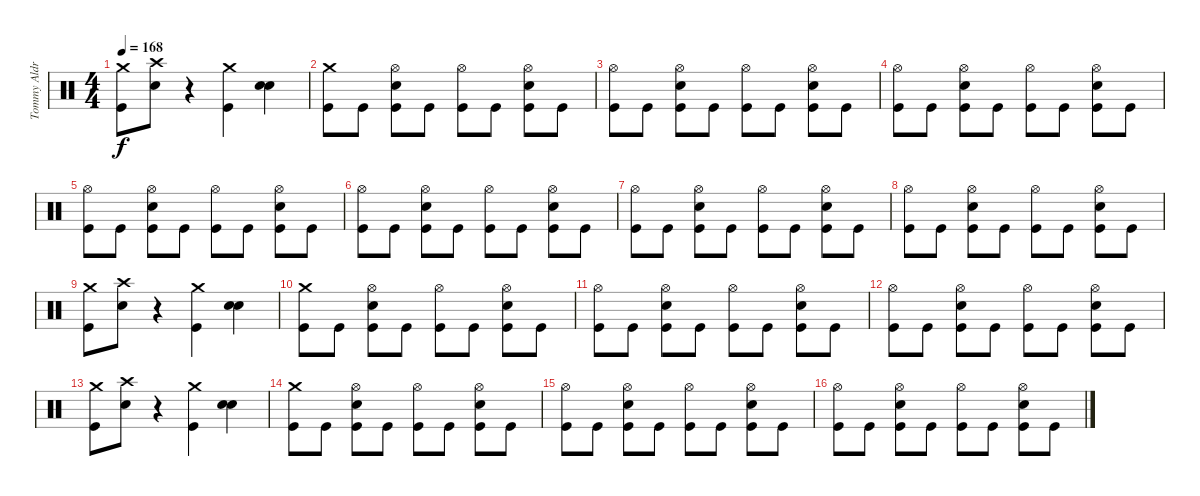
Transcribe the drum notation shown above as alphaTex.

\track ("Tommy Aldrige" "Tommy Aldr") {instrument percussion}
\staff {score}
\articulation defaults
\ts (4 4)
\tempo 168
\clef neutral
\ks c
("Crash medium (hit)" "Kick (hit)").8{dy f} ("Crash high (hit)" "Snare (hit) 2").8 r.4 ("Crash medium (hit)" "Kick (hit)").4 ("Snare (hit) 2" "Snare (hit) 2").4{bd 240} |
("Crash medium (hit)" "Kick (hit)").8 "Kick (hit)".8 ("Hi-Hat (open)" "Snare (hit) 2" "Kick (hit)").8 "Kick (hit)".8 ("Hi-Hat (open)" "Kick (hit)").8 "Kick (hit)".8 ("Hi-Hat (open)" "Snare (hit) 2" "Kick (hit)").8 "Kick (hit)".8 |
("Hi-Hat (open)" "Kick (hit)").8 "Kick (hit)".8 ("Hi-Hat (open)" "Snare (hit) 2" "Kick (hit)").8 "Kick (hit)".8 ("Hi-Hat (open)" "Kick (hit)").8 "Kick (hit)".8 ("Hi-Hat (open)" "Snare (hit) 2" "Kick (hit)").8 "Kick (hit)".8 |
("Hi-Hat (open)" "Kick (hit)").8 "Kick (hit)".8 ("Hi-Hat (open)" "Snare (hit) 2" "Kick (hit)").8 "Kick (hit)".8 ("Hi-Hat (open)" "Kick (hit)").8 "Kick (hit)".8 ("Hi-Hat (open)" "Snare (hit) 2" "Kick (hit)").8 "Kick (hit)".8 |
("Hi-Hat (open)" "Kick (hit)").8 "Kick (hit)".8 ("Hi-Hat (open)" "Snare (hit) 2" "Kick (hit)").8 "Kick (hit)".8 ("Hi-Hat (open)" "Kick (hit)").8 "Kick (hit)".8 ("Hi-Hat (open)" "Snare (hit) 2" "Kick (hit)").8 "Kick (hit)".8 |
("Hi-Hat (open)" "Kick (hit)").8 "Kick (hit)".8 ("Hi-Hat (open)" "Snare (hit) 2" "Kick (hit)").8 "Kick (hit)".8 ("Hi-Hat (open)" "Kick (hit)").8 "Kick (hit)".8 ("Hi-Hat (open)" "Snare (hit) 2" "Kick (hit)").8 "Kick (hit)".8 |
("Hi-Hat (open)" "Kick (hit)").8 "Kick (hit)".8 ("Hi-Hat (open)" "Snare (hit) 2" "Kick (hit)").8 "Kick (hit)".8 ("Hi-Hat (open)" "Kick (hit)").8 "Kick (hit)".8 ("Hi-Hat (open)" "Snare (hit) 2" "Kick (hit)").8 "Kick (hit)".8 |
("Hi-Hat (open)" "Kick (hit)").8 "Kick (hit)".8 ("Hi-Hat (open)" "Snare (hit) 2" "Kick (hit)").8 "Kick (hit)".8 ("Hi-Hat (open)" "Kick (hit)").8 "Kick (hit)".8 ("Hi-Hat (open)" "Snare (hit) 2" "Kick (hit)").8 "Kick (hit)".8 |
("Crash medium (hit)" "Kick (hit)").8 ("Crash high (hit)" "Snare (hit) 2").8 r.4 ("Crash medium (hit)" "Kick (hit)").4 ("Snare (hit) 2" "Snare (hit) 2").4{bd 240} |
("Crash medium (hit)" "Kick (hit)").8 "Kick (hit)".8 ("Hi-Hat (open)" "Snare (hit) 2" "Kick (hit)").8 "Kick (hit)".8 ("Hi-Hat (open)" "Kick (hit)").8 "Kick (hit)".8 ("Hi-Hat (open)" "Snare (hit) 2" "Kick (hit)").8 "Kick (hit)".8 |
("Hi-Hat (open)" "Kick (hit)").8 "Kick (hit)".8 ("Hi-Hat (open)" "Snare (hit) 2" "Kick (hit)").8 "Kick (hit)".8 ("Hi-Hat (open)" "Kick (hit)").8 "Kick (hit)".8 ("Hi-Hat (open)" "Snare (hit) 2" "Kick (hit)").8 "Kick (hit)".8 |
("Hi-Hat (open)" "Kick (hit)").8 "Kick (hit)".8 ("Hi-Hat (open)" "Snare (hit) 2" "Kick (hit)").8 "Kick (hit)".8 ("Hi-Hat (open)" "Kick (hit)").8 "Kick (hit)".8 ("Hi-Hat (open)" "Snare (hit) 2" "Kick (hit)").8 "Kick (hit)".8 |
("Crash medium (hit)" "Kick (hit)").8 ("Crash high (hit)" "Snare (hit) 2").8 r.4 ("Crash medium (hit)" "Kick (hit)").4 ("Snare (hit) 2" "Snare (hit) 2").4{bd 240} |
("Crash medium (hit)" "Kick (hit)").8 "Kick (hit)".8 ("Hi-Hat (open)" "Snare (hit) 2" "Kick (hit)").8 "Kick (hit)".8 ("Hi-Hat (open)" "Kick (hit)").8 "Kick (hit)".8 ("Hi-Hat (open)" "Snare (hit) 2" "Kick (hit)").8 "Kick (hit)".8 |
("Hi-Hat (open)" "Kick (hit)").8 "Kick (hit)".8 ("Hi-Hat (open)" "Snare (hit) 2" "Kick (hit)").8 "Kick (hit)".8 ("Hi-Hat (open)" "Kick (hit)").8 "Kick (hit)".8 ("Hi-Hat (open)" "Snare (hit) 2" "Kick (hit)").8 "Kick (hit)".8 |
("Hi-Hat (open)" "Kick (hit)").8 "Kick (hit)".8 ("Hi-Hat (open)" "Snare (hit) 2" "Kick (hit)").8 "Kick (hit)".8 ("Hi-Hat (open)" "Kick (hit)").8 "Kick (hit)".8 ("Hi-Hat (open)" "Snare (hit) 2" "Kick (hit)").8 "Kick (hit)".8
